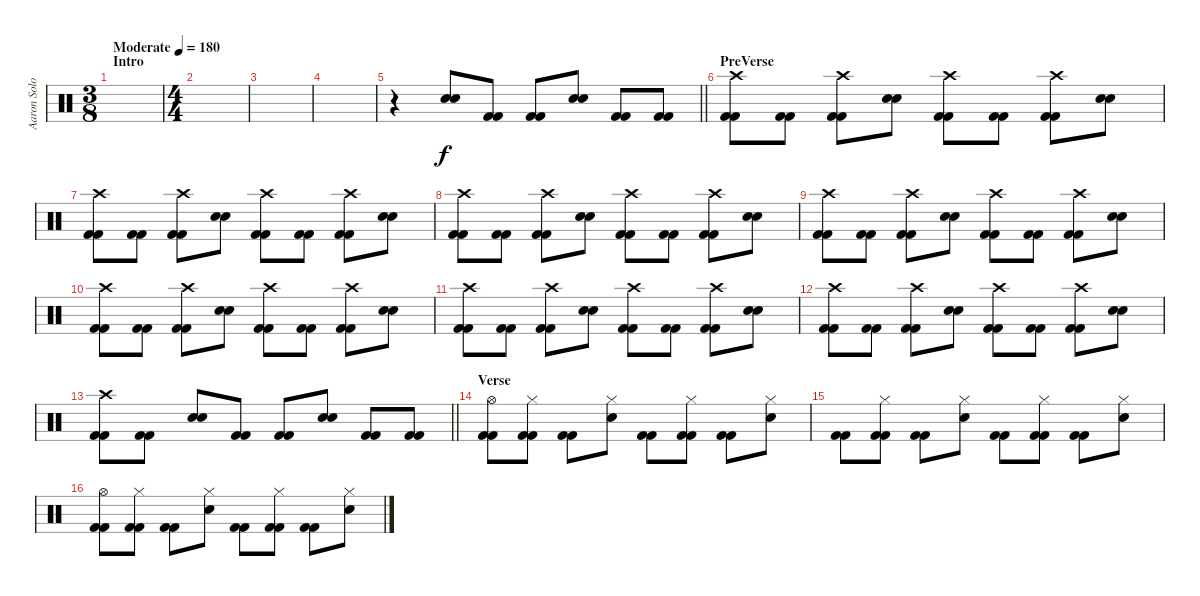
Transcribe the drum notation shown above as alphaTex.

\track ("Aaron Solowoniuk" "Aaron Solo") {instrument percussion}
\staff {score}
\articulation defaults
\ts (3 8)
\section ("" "Intro")
\tempo (180 "Moderate")
\clef neutral
\ks c
|
\ts (4 4)
|
|
|
\barLineRight lightlight
r.4 ("Electric Snare (hit)" "Electric Snare (hit)").8 ("Kick (hit) 2" "Kick (hit) 2").8 ("Kick (hit) 2" "Kick (hit) 2").8 ("Electric Snare (hit)" "Electric Snare (hit)").8 ("Kick (hit) 2" "Kick (hit) 2").8 ("Kick (hit) 2" "Kick (hit) 2").8 |
\section ("" "PreVerse")
("Crash high (hit)" "Kick (hit) 2" "Kick (hit) 2").8 ("Kick (hit) 2" "Kick (hit) 2").8 ("Crash high (hit)" "Kick (hit) 2" "Kick (hit) 2").8 ("Electric Snare (hit)" "Electric Snare (hit)").8 ("Crash high (hit)" "Kick (hit) 2" "Kick (hit) 2").8 ("Kick (hit) 2" "Kick (hit) 2").8 ("Crash high (hit)" "Kick (hit) 2" "Kick (hit) 2").8 ("Electric Snare (hit)" "Electric Snare (hit)").8 |
("Crash high (hit)" "Kick (hit) 2" "Kick (hit) 2").8 ("Kick (hit) 2" "Kick (hit) 2").8 ("Crash high (hit)" "Kick (hit) 2" "Kick (hit) 2").8 ("Electric Snare (hit)" "Electric Snare (hit)").8 ("Crash high (hit)" "Kick (hit) 2" "Kick (hit) 2").8 ("Kick (hit) 2" "Kick (hit) 2").8 ("Crash high (hit)" "Kick (hit) 2" "Kick (hit) 2").8 ("Electric Snare (hit)" "Electric Snare (hit)").8 |
("Crash high (hit)" "Kick (hit) 2" "Kick (hit) 2").8 ("Kick (hit) 2" "Kick (hit) 2").8 ("Crash high (hit)" "Kick (hit) 2" "Kick (hit) 2").8 ("Electric Snare (hit)" "Electric Snare (hit)").8 ("Crash high (hit)" "Kick (hit) 2" "Kick (hit) 2").8 ("Kick (hit) 2" "Kick (hit) 2").8 ("Crash high (hit)" "Kick (hit) 2" "Kick (hit) 2").8 ("Electric Snare (hit)" "Electric Snare (hit)").8 |
("Crash high (hit)" "Kick (hit) 2" "Kick (hit) 2").8 ("Kick (hit) 2" "Kick (hit) 2").8 ("Crash high (hit)" "Kick (hit) 2" "Kick (hit) 2").8 ("Electric Snare (hit)" "Electric Snare (hit)").8 ("Crash high (hit)" "Kick (hit) 2" "Kick (hit) 2").8 ("Kick (hit) 2" "Kick (hit) 2").8 ("Crash high (hit)" "Kick (hit) 2" "Kick (hit) 2").8 ("Electric Snare (hit)" "Electric Snare (hit)").8 |
("Crash high (hit)" "Kick (hit) 2" "Kick (hit) 2").8 ("Kick (hit) 2" "Kick (hit) 2").8 ("Crash high (hit)" "Kick (hit) 2" "Kick (hit) 2").8 ("Electric Snare (hit)" "Electric Snare (hit)").8 ("Crash high (hit)" "Kick (hit) 2" "Kick (hit) 2").8 ("Kick (hit) 2" "Kick (hit) 2").8 ("Crash high (hit)" "Kick (hit) 2" "Kick (hit) 2").8 ("Electric Snare (hit)" "Electric Snare (hit)").8 |
("Crash high (hit)" "Kick (hit) 2" "Kick (hit) 2").8 ("Kick (hit) 2" "Kick (hit) 2").8 ("Crash high (hit)" "Kick (hit) 2" "Kick (hit) 2").8 ("Electric Snare (hit)" "Electric Snare (hit)").8 ("Crash high (hit)" "Kick (hit) 2" "Kick (hit) 2").8 ("Kick (hit) 2" "Kick (hit) 2").8 ("Crash high (hit)" "Kick (hit) 2" "Kick (hit) 2").8 ("Electric Snare (hit)" "Electric Snare (hit)").8 |
("Crash high (hit)" "Kick (hit) 2" "Kick (hit) 2").8 ("Kick (hit) 2" "Kick (hit) 2").8 ("Crash high (hit)" "Kick (hit) 2" "Kick (hit) 2").8 ("Electric Snare (hit)" "Electric Snare (hit)").8 ("Crash high (hit)" "Kick (hit) 2" "Kick (hit) 2").8 ("Kick (hit) 2" "Kick (hit) 2").8 ("Crash high (hit)" "Kick (hit) 2" "Kick (hit) 2").8 ("Electric Snare (hit)" "Electric Snare (hit)").8 |
\barLineRight lightlight
("Crash high (hit)" "Kick (hit) 2" "Kick (hit) 2").8 ("Kick (hit) 2" "Kick (hit) 2").8 ("Electric Snare (hit)" "Electric Snare (hit)").8 ("Kick (hit) 2" "Kick (hit) 2").8 ("Kick (hit) 2" "Kick (hit) 2").8 ("Electric Snare (hit)" "Electric Snare (hit)").8 ("Kick (hit) 2" "Kick (hit) 2").8 ("Kick (hit) 2" "Kick (hit) 2").8 |
\section ("" "Verse")
("Hi-Hat (open)" "Kick (hit) 2" "Kick (hit) 2").8 ("Hi-Hat (closed)" "Kick (hit) 2" "Kick (hit) 2").8 ("Kick (hit) 2" "Kick (hit) 2").8 ("Hi-Hat (closed)" "Electric Snare (hit)").8 ("Kick (hit) 2" "Kick (hit) 2").8 ("Hi-Hat (closed)" "Kick (hit) 2" "Kick (hit) 2").8 ("Kick (hit) 2" "Kick (hit) 2").8 ("Hi-Hat (closed)" "Electric Snare (hit)").8 |
("Kick (hit) 2" "Kick (hit) 2").8 ("Hi-Hat (closed)" "Kick (hit) 2" "Kick (hit) 2").8 ("Kick (hit) 2" "Kick (hit) 2").8 ("Hi-Hat (closed)" "Electric Snare (hit)").8 ("Kick (hit) 2" "Kick (hit) 2").8 ("Hi-Hat (closed)" "Kick (hit) 2" "Kick (hit) 2").8 ("Kick (hit) 2" "Kick (hit) 2").8 ("Hi-Hat (closed)" "Electric Snare (hit)").8 |
("Hi-Hat (open)" "Kick (hit) 2" "Kick (hit) 2").8 ("Hi-Hat (closed)" "Kick (hit) 2" "Kick (hit) 2").8 ("Kick (hit) 2" "Kick (hit) 2").8 ("Hi-Hat (closed)" "Electric Snare (hit)").8 ("Kick (hit) 2" "Kick (hit) 2").8 ("Hi-Hat (closed)" "Kick (hit) 2" "Kick (hit) 2").8 ("Kick (hit) 2" "Kick (hit) 2").8 ("Hi-Hat (closed)" "Electric Snare (hit)").8
